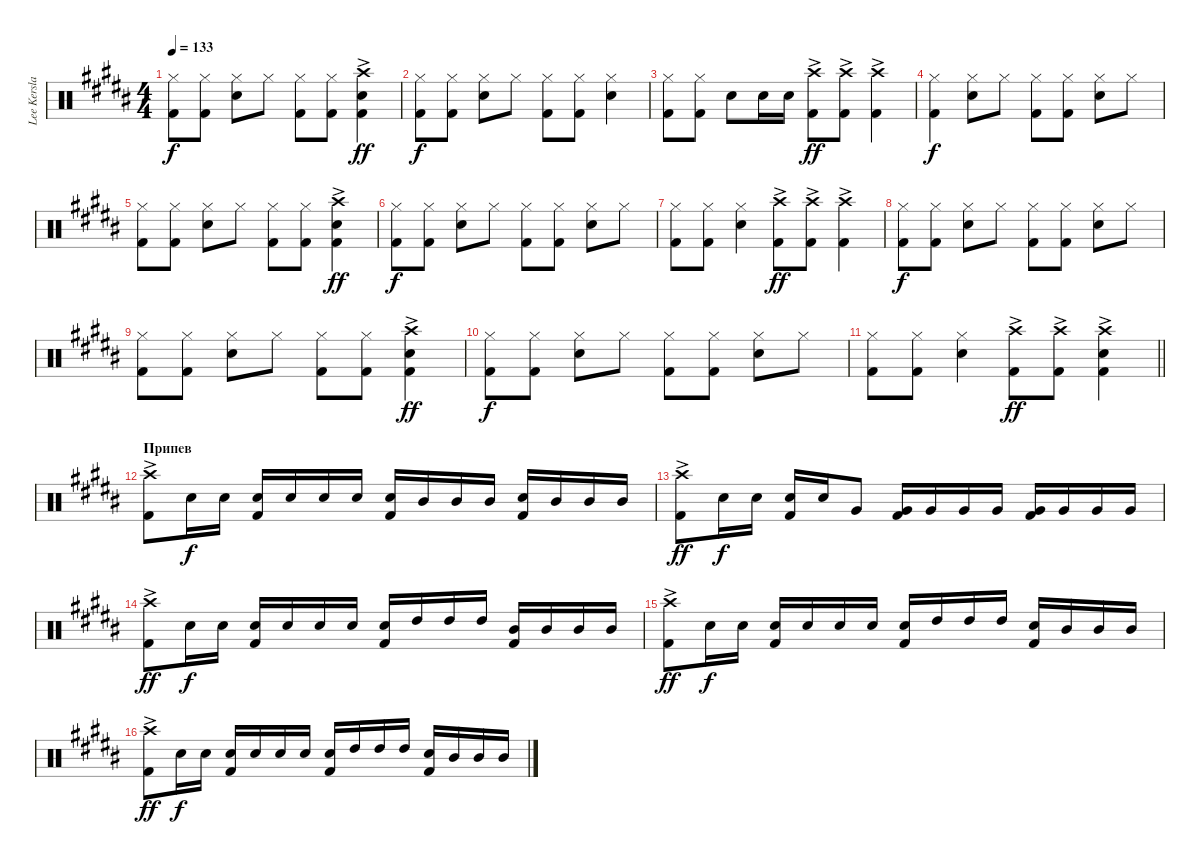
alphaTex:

\track ("Lee Kerslake" "Lee Kersla") {instrument percussion}
\staff {score}
\articulation defaults
\ts (4 4)
\tempo 133
\clef neutral
\ks b
("Hi-Hat (closed)" "Kick (hit) 2").8{dy f} ("Hi-Hat (closed)" "Kick (hit) 2").8 ("Snare (hit) 2" "Hi-Hat (closed)").8 "Hi-Hat (closed)".8 ("Hi-Hat (closed)" "Kick (hit) 2").8 ("Hi-Hat (closed)" "Kick (hit) 2").8 ("Snare (hit) 2" "Crash high (hit)"{ac} "Kick (hit) 2").4{dy ff} |
("Hi-Hat (closed)" "Kick (hit) 2").8{dy f} ("Hi-Hat (closed)" "Kick (hit) 2").8 ("Snare (hit) 2" "Hi-Hat (closed)").8 "Hi-Hat (closed)".8 ("Hi-Hat (closed)" "Kick (hit) 2").8 ("Hi-Hat (closed)" "Kick (hit) 2").8 ("Snare (hit) 2" "Hi-Hat (closed)").4 |
("Hi-Hat (closed)" "Kick (hit) 2").8 ("Hi-Hat (closed)" "Kick (hit) 2").8 "Snare (hit) 2".8 "Snare (hit) 2".16 "Snare (hit) 2".16 ("Kick (hit) 2" "Crash high (hit)"{ac}).8{dy ff} ("Kick (hit) 2" "Crash high (hit)"{ac}).8 ("Kick (hit) 2" "Crash high (hit)"{ac}).4 |
("Hi-Hat (closed)" "Kick (hit) 2").4{dy f} ("Snare (hit) 2" "Hi-Hat (closed)").8 "Hi-Hat (closed)".8 ("Hi-Hat (closed)" "Kick (hit) 2").8 ("Hi-Hat (closed)" "Kick (hit) 2").8 ("Snare (hit) 2" "Hi-Hat (closed)").8 "Hi-Hat (closed)".8 |
("Hi-Hat (closed)" "Kick (hit) 2").8 ("Hi-Hat (closed)" "Kick (hit) 2").8 ("Snare (hit) 2" "Hi-Hat (closed)").8 "Hi-Hat (closed)".8 ("Hi-Hat (closed)" "Kick (hit) 2").8 ("Hi-Hat (closed)" "Kick (hit) 2").8 ("Snare (hit) 2" "Crash high (hit)"{ac} "Kick (hit) 2").4{dy ff} |
("Hi-Hat (closed)" "Kick (hit) 2").8{dy f} ("Hi-Hat (closed)" "Kick (hit) 2").8 ("Snare (hit) 2" "Hi-Hat (closed)").8 "Hi-Hat (closed)".8 ("Hi-Hat (closed)" "Kick (hit) 2").8 ("Hi-Hat (closed)" "Kick (hit) 2").8 ("Snare (hit) 2" "Hi-Hat (closed)").8 "Hi-Hat (closed)".8 |
("Hi-Hat (closed)" "Kick (hit) 2").8 ("Hi-Hat (closed)" "Kick (hit) 2").8 ("Snare (hit) 2" "Hi-Hat (closed)").4 ("Kick (hit) 2" "Crash high (hit)"{ac}).8{dy ff} ("Kick (hit) 2" "Crash high (hit)"{ac}).8 ("Kick (hit) 2" "Crash high (hit)"{ac}).4 |
("Hi-Hat (closed)" "Kick (hit) 2").8{dy f} ("Hi-Hat (closed)" "Kick (hit) 2").8 ("Snare (hit) 2" "Hi-Hat (closed)").8 "Hi-Hat (closed)".8 ("Hi-Hat (closed)" "Kick (hit) 2").8 ("Hi-Hat (closed)" "Kick (hit) 2").8 ("Snare (hit) 2" "Hi-Hat (closed)").8 "Hi-Hat (closed)".8 |
("Hi-Hat (closed)" "Kick (hit) 2").8 ("Hi-Hat (closed)" "Kick (hit) 2").8 ("Snare (hit) 2" "Hi-Hat (closed)").8 "Hi-Hat (closed)".8 ("Hi-Hat (closed)" "Kick (hit) 2").8 ("Hi-Hat (closed)" "Kick (hit) 2").8 ("Snare (hit) 2" "Crash high (hit)"{ac} "Kick (hit) 2").4{dy ff} |
("Hi-Hat (closed)" "Kick (hit) 2").8{dy f} ("Hi-Hat (closed)" "Kick (hit) 2").8 ("Snare (hit) 2" "Hi-Hat (closed)").8 "Hi-Hat (closed)".8 ("Hi-Hat (closed)" "Kick (hit) 2").8 ("Hi-Hat (closed)" "Kick (hit) 2").8 ("Snare (hit) 2" "Hi-Hat (closed)").8 "Hi-Hat (closed)".8 |
\barLineRight lightlight
("Hi-Hat (closed)" "Kick (hit) 2").8 ("Hi-Hat (closed)" "Kick (hit) 2").8 ("Snare (hit) 2" "Hi-Hat (closed)").4 ("Kick (hit) 2" "Crash high (hit)"{ac}).8{dy ff} ("Kick (hit) 2" "Crash high (hit)"{ac}).8 ("Kick (hit) 2" "Crash high (hit)"{ac} "Snare (hit) 2").4 |
\section ("" "Припев")
("Crash high (hit)"{ac} "Kick (hit) 2").8 "Snare (hit) 2".16{dy f} "Snare (hit) 2".16 ("Snare (hit) 2" "Kick (hit) 2").16 "Snare (hit) 2".16 "Snare (hit) 2".16 "Snare (hit) 2".16 ("Kick (hit) 2" "Snare (hit) 2").16 "Mid Tom (hit)".16 "Mid Tom (hit)".16 "Mid Tom (hit)".16 ("Kick (hit) 2" "Snare (hit) 2").16 "Mid Tom (hit)".16 "Mid Tom (hit)".16 "Mid Tom (hit)".16 |
("Kick (hit) 2" "Crash high (hit)"{ac}).8{dy ff} "Snare (hit) 2".16{dy f} "Snare (hit) 2".16 ("Snare (hit) 2" "Kick (hit) 2").16 "Snare (hit) 2".16 "Very Low Tom (hit)".8 ("Very Low Tom (hit)" "Kick (hit) 2").16 "Very Low Tom (hit)".16 "Very Low Tom (hit)".16 "Very Low Tom (hit)".16 ("Very Low Tom (hit)" "Kick (hit) 2").16 "Very Low Tom (hit)".16 "Very Low Tom (hit)".16 "Very Low Tom (hit)".16 |
("Crash high (hit)"{ac} "Kick (hit) 2").8{dy ff} "Snare (hit) 2".16{dy f} "Snare (hit) 2".16 ("Snare (hit) 2" "Kick (hit) 2").16 "Snare (hit) 2".16 "Snare (hit) 2".16 "Snare (hit) 2".16 ("Snare (hit) 2" "Kick (hit) 2").16 "High Tom (hit)".16 "High Tom (hit)".16 "High Tom (hit)".16 ("Kick (hit) 2" "Mid Tom (hit)").16 "Mid Tom (hit)".16 "Mid Tom (hit)".16 "Mid Tom (hit)".16 |
("Crash high (hit)"{ac} "Kick (hit) 2").8{dy ff} "Snare (hit) 2".16{dy f} "Snare (hit) 2".16 ("Snare (hit) 2" "Kick (hit) 2").16 "Snare (hit) 2".16 "Snare (hit) 2".16 "Snare (hit) 2".16 ("Snare (hit) 2" "Kick (hit) 2").16 "High Tom (hit)".16 "High Tom (hit)".16 "High Tom (hit)".16 ("Snare (hit) 2" "Kick (hit) 2").16 "Mid Tom (hit)".16 "Mid Tom (hit)".16 "Mid Tom (hit)".16 |
("Crash high (hit)"{ac} "Kick (hit) 2").8{dy ff} "Snare (hit) 2".16{dy f} "Snare (hit) 2".16 ("Snare (hit) 2" "Kick (hit) 2").16 "Snare (hit) 2".16 "Snare (hit) 2".16 "Snare (hit) 2".16 ("Snare (hit) 2" "Kick (hit) 2").16 "High Tom (hit)".16 "High Tom (hit)".16 "High Tom (hit)".16 ("Snare (hit) 2" "Kick (hit) 2").16 "Mid Tom (hit)".16 "Mid Tom (hit)".16 "Mid Tom (hit)".16
